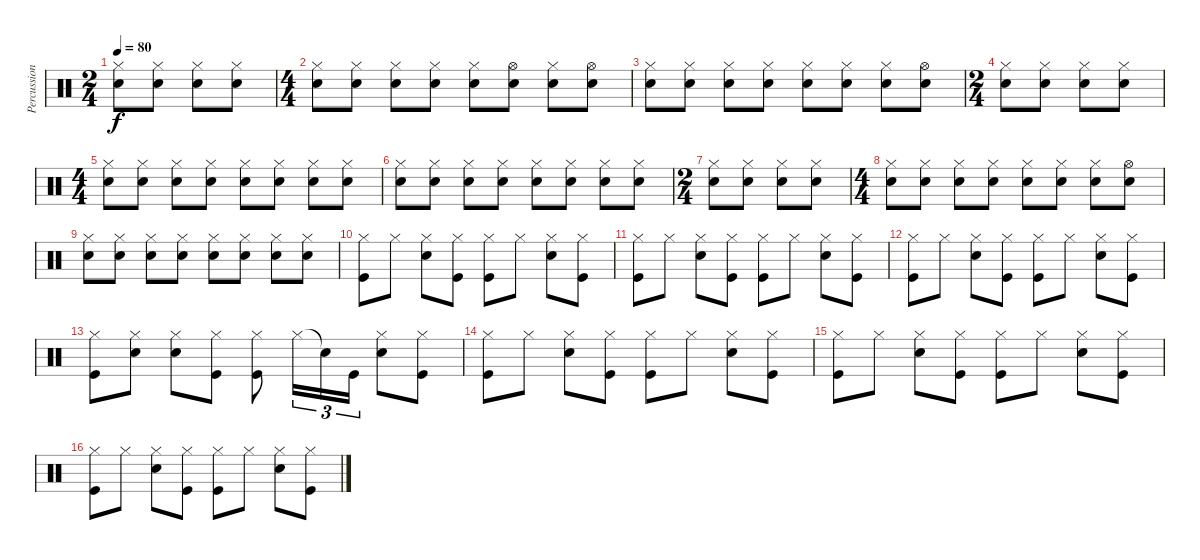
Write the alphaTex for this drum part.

\track ("Percussion" "Percussion") {instrument percussion}
\staff {score}
\articulation defaults
\ts (2 4)
\tempo 80
\clef neutral
\ks c
("Hi-Hat (closed)" "Snare (hit) 2").8{dy f} ("Hi-Hat (closed)" "Snare (hit) 2").8 ("Hi-Hat (closed)" "Snare (hit) 2").8 ("Hi-Hat (closed)" "Snare (hit) 2").8 |
\ts (4 4)
("Hi-Hat (closed)" "Snare (hit) 2").8 ("Hi-Hat (closed)" "Snare (hit) 2").8 ("Hi-Hat (closed)" "Snare (hit) 2").8 ("Hi-Hat (closed)" "Snare (hit) 2").8 ("Hi-Hat (closed)" "Snare (hit) 2").8 ("Hi-Hat (open)" "Snare (hit) 2").8 ("Hi-Hat (closed)" "Snare (hit) 2").8 ("Hi-Hat (open)" "Snare (hit) 2").8 |
("Hi-Hat (closed)" "Snare (hit) 2").8 ("Hi-Hat (closed)" "Snare (hit) 2").8 ("Hi-Hat (closed)" "Snare (hit) 2").8 ("Hi-Hat (closed)" "Snare (hit) 2").8 ("Hi-Hat (closed)" "Snare (hit) 2").8 ("Hi-Hat (closed)" "Snare (hit) 2").8 ("Hi-Hat (closed)" "Snare (hit) 2").8 ("Hi-Hat (open)" "Snare (hit) 2").8 |
\ts (2 4)
("Hi-Hat (closed)" "Snare (hit) 2").8 ("Hi-Hat (closed)" "Snare (hit) 2").8 ("Hi-Hat (closed)" "Snare (hit) 2").8 ("Hi-Hat (closed)" "Snare (hit) 2").8 |
\ts (4 4)
("Hi-Hat (closed)" "Snare (hit) 2").8 ("Hi-Hat (closed)" "Snare (hit) 2").8 ("Hi-Hat (closed)" "Snare (hit) 2").8 ("Hi-Hat (closed)" "Snare (hit) 2").8 ("Hi-Hat (closed)" "Snare (hit) 2").8 ("Hi-Hat (closed)" "Snare (hit) 2").8 ("Hi-Hat (closed)" "Snare (hit) 2").8 ("Hi-Hat (closed)" "Snare (hit) 2").8 |
("Hi-Hat (closed)" "Snare (hit) 2").8 ("Hi-Hat (closed)" "Snare (hit) 2").8 ("Hi-Hat (closed)" "Snare (hit) 2").8 ("Hi-Hat (closed)" "Snare (hit) 2").8 ("Hi-Hat (closed)" "Snare (hit) 2").8 ("Hi-Hat (closed)" "Snare (hit) 2").8 ("Hi-Hat (closed)" "Snare (hit) 2").8 ("Hi-Hat (closed)" "Snare (hit) 2").8 |
\ts (2 4)
("Hi-Hat (closed)" "Snare (hit) 2").8 ("Hi-Hat (closed)" "Snare (hit) 2").8 ("Hi-Hat (closed)" "Snare (hit) 2").8 ("Hi-Hat (closed)" "Snare (hit) 2").8 |
\ts (4 4)
("Hi-Hat (closed)" "Snare (hit) 2").8 ("Hi-Hat (closed)" "Snare (hit) 2").8 ("Hi-Hat (closed)" "Snare (hit) 2").8 ("Hi-Hat (closed)" "Snare (hit) 2").8 ("Hi-Hat (closed)" "Snare (hit) 2").8 ("Hi-Hat (closed)" "Snare (hit) 2").8 ("Hi-Hat (closed)" "Snare (hit) 2").8 ("Hi-Hat (open)" "Snare (hit) 2").8 |
("Hi-Hat (closed)" "Snare (hit) 2").8 ("Hi-Hat (closed)" "Snare (hit) 2").8 ("Hi-Hat (closed)" "Snare (hit) 2").8 ("Hi-Hat (closed)" "Snare (hit) 2").8 ("Hi-Hat (closed)" "Snare (hit) 2").8 ("Hi-Hat (closed)" "Snare (hit) 2").8 ("Hi-Hat (closed)" "Snare (hit) 2").8 ("Hi-Hat (closed)" "Snare (hit) 2").8 |
("Hi-Hat (closed)" "Kick (hit)").8 "Hi-Hat (closed)".8 ("Hi-Hat (closed)" "Snare (hit) 2").8 ("Hi-Hat (closed)" "Kick (hit)").8 ("Hi-Hat (closed)" "Kick (hit)").8 "Hi-Hat (closed)".8 ("Hi-Hat (closed)" "Snare (hit) 2").8 ("Hi-Hat (closed)" "Kick (hit)").8 |
("Hi-Hat (closed)" "Kick (hit)").8 "Hi-Hat (closed)".8 ("Hi-Hat (closed)" "Snare (hit) 2").8 ("Hi-Hat (closed)" "Kick (hit)").8 ("Hi-Hat (closed)" "Kick (hit)").8 "Hi-Hat (closed)".8 ("Hi-Hat (closed)" "Snare (hit) 2").8 ("Hi-Hat (closed)" "Kick (hit)").8 |
("Hi-Hat (closed)" "Kick (hit)").8 "Hi-Hat (closed)".8 ("Hi-Hat (closed)" "Snare (hit) 2").8 ("Hi-Hat (closed)" "Kick (hit)").8 ("Hi-Hat (closed)" "Kick (hit)").8 "Hi-Hat (closed)".8 ("Hi-Hat (closed)" "Snare (hit) 2").8 ("Hi-Hat (closed)" "Kick (hit)").8 |
("Hi-Hat (closed)" "Kick (hit)").8 ("Hi-Hat (closed)" "Snare (hit) 2").8 ("Hi-Hat (closed)" "Snare (hit) 2").8 ("Hi-Hat (closed)" "Kick (hit)").8 ("Hi-Hat (closed)" "Kick (hit)").8 "Hi-Hat (closed)".16{tu (3 2)} "Snare (hit)"{t}.16{tu (3 2)} "Kick (hit)".16{tu (3 2)} ("Hi-Hat (closed)" "Snare (hit) 2").8 ("Hi-Hat (closed)" "Kick (hit)").8 |
("Hi-Hat (closed)" "Kick (hit)").8 "Hi-Hat (closed)".8 ("Hi-Hat (closed)" "Snare (hit) 2").8 ("Hi-Hat (closed)" "Kick (hit)").8 ("Hi-Hat (closed)" "Kick (hit)").8 "Hi-Hat (closed)".8 ("Hi-Hat (closed)" "Snare (hit) 2").8 ("Hi-Hat (closed)" "Kick (hit)").8 |
("Hi-Hat (closed)" "Kick (hit)").8 "Hi-Hat (closed)".8 ("Hi-Hat (closed)" "Snare (hit) 2").8 ("Hi-Hat (closed)" "Kick (hit)").8 ("Hi-Hat (closed)" "Kick (hit)").8 "Hi-Hat (closed)".8 ("Hi-Hat (closed)" "Snare (hit) 2").8 ("Hi-Hat (closed)" "Kick (hit)").8 |
("Hi-Hat (closed)" "Kick (hit)").8 "Hi-Hat (closed)".8 ("Hi-Hat (closed)" "Snare (hit) 2").8 ("Hi-Hat (closed)" "Kick (hit)").8 ("Hi-Hat (closed)" "Kick (hit)").8 "Hi-Hat (closed)".8 ("Hi-Hat (closed)" "Snare (hit) 2").8 ("Hi-Hat (closed)" "Kick (hit)").8
